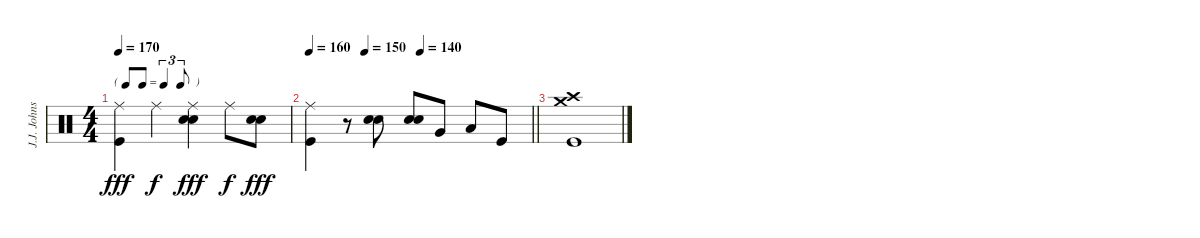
\track ("J.J. Johnson" "J.J. Johns") {instrument percussion}
\staff {score}
\articulation defaults
\ts (4 4)
\tf triplet8th
\tempo 170
\clef neutral
\ks c
("Ride (middle)" "Kick (hit)").4{dy fff} "Ride (middle)".4{dy f} ("Ride (middle)" "Electric Snare (hit)" "Snare (hit) 2").4{dy fff} "Ride (middle)".8{dy f} ("Snare (hit) 2" "Electric Snare (hit)").8{dy fff} |
\tempo 160
\tempo (150 0.25)
\tempo (140 0.5)
\barLineRight lightlight
("Ride (middle)" "Kick (hit)").4 r.8 ("Electric Snare (hit)" "Snare (hit) 2").8 ("Electric Snare (hit)" "Snare (hit) 2").8 "Very Low Tom (hit)".8 "Low Floor Tom (hit)".8 "Kick (hit)".8 |
("Crash high (hit)" "Crash medium (hit)" "Kick (hit)").1
